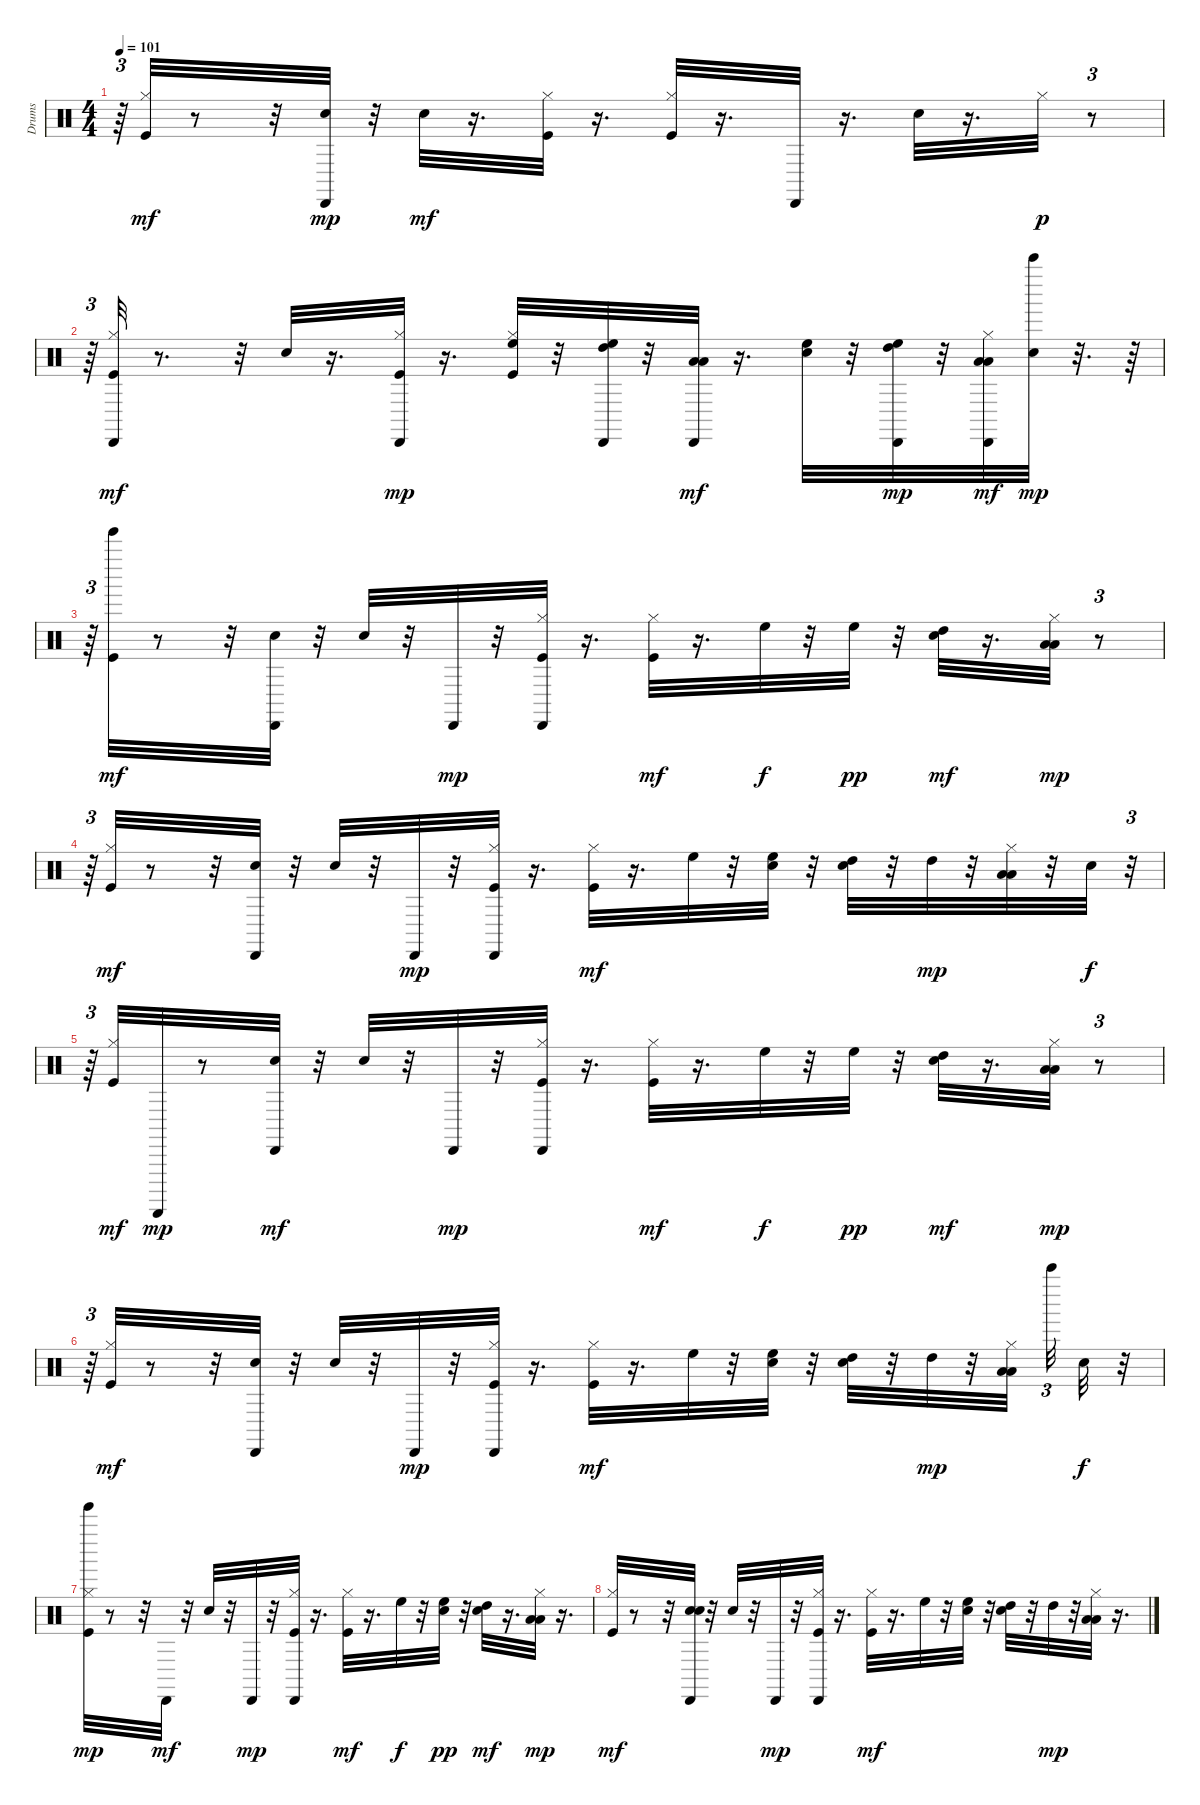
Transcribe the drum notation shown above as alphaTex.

\track ("Drums" "Drums") {instrument percussion}
\staff {score}
\articulation defaults
\ts (4 4)
\tempo 101
\clef neutral
\ks c
r.64{tu (3 2) dy mp} ("Kick (hit)" "Hi-Hat (closed)").32{dy mf} r.8 r.32 ("Hand Clap (hit)" "Cabasa (hit)").32{dy mp} r.32 "Snare (hit) 2".32{dy mf} r.16{d} ("Kick (hit)" "Hi-Hat (closed)").32 r.16{d} ("Kick (hit)" "Hi-Hat (closed)").32 r.16{d} "Cabasa (hit)".32 r.16{d} "Snare (hit) 2".32 r.16{d} "Hi-Hat (closed)".32{dy p} r.8{tu (3 2)} |
r.64{tu (3 2)} ("Kick (hit)" "Hi-Hat (closed)" "Cabasa (hit)").32{dy mf} r.8{d} r.32 "Snare (hit) 2".32 r.16{d} ("Kick (hit)" "Hi-Hat (closed)" "Cabasa (hit)").32{dy mp} r.16{d} ("Kick (hit)" "Hi-Hat (closed)" "High Floor Tom (hit)").32 r.32 ("High Tom (hit)" "High Floor Tom (hit)" "Cabasa (hit)").32 r.32 ("Low Floor Tom (hit)" "Low Tom (hit)" "Cabasa (hit)").32{dy mf} r.16{d} ("Snare (hit) 2" "High Floor Tom (hit)").32 r.32 ("High Tom (hit)" "High Floor Tom (hit)" "Cabasa (hit)").32{dy mp} r.32 ("Low Floor Tom (hit)" "Hi-Hat (closed)" "Low Tom (hit)" "Cabasa (hit)").32{dy mf} ("Bell Tree (hit)" "Hand Clap (hit)").32{dy mp} r.32{d} r.64 |
r.64{tu (3 2)} ("Kick (hit)" "Tinkle Bell (hit)").32{dy mf} r.8 r.32 ("Hand Clap (hit)" "Cabasa (hit)").32 r.32 "Snare (hit) 2".32 r.32 "Cabasa (hit)".32{dy mp} r.32 ("Kick (hit)" "Hi-Hat (closed)" "Cabasa (hit)").32 r.16{d} ("Kick (hit)" "Hi-Hat (closed)").32{dy mf} r.16{d} "High Floor Tom (hit)".32{dy f} r.32 "High Floor Tom (hit)".32{dy pp} r.32 ("Snare (hit) 2" "High Tom (hit)").32{dy mf} r.16{d} ("Low Floor Tom (hit)" "Hi-Hat (closed)" "Low Tom (hit)").32{dy mp} r.8{tu (3 2)} |
r.64{tu (3 2)} ("Kick (hit)" "Hi-Hat (closed)").32{dy mf} r.8 r.32 ("Hand Clap (hit)" "Cabasa (hit)").32 r.32 "Snare (hit) 2".32 r.32 "Cabasa (hit)".32{dy mp} r.32 ("Kick (hit)" "Hi-Hat (closed)" "Cabasa (hit)").32 r.16{d} ("Kick (hit)" "Hi-Hat (closed)").32{dy mf} r.16{d} "High Floor Tom (hit)".32 r.32 ("Hand Clap (hit)" "High Floor Tom (hit)").32 r.32 ("Snare (hit) 2" "High Tom (hit)").32 r.32 "High Tom (hit)".32{dy mp} r.32 ("Low Floor Tom (hit)" "Hi-Hat (closed)" "Low Tom (hit)").32 r.32 "Hand Clap (hit)".32{dy f} r.32{tu (3 2)} |
r.64{tu (3 2)} ("Kick (hit)" "Hi-Hat (closed)").32{dy mf} "Guiro (scrap-return)".32{dy mp} r.8 ("Hand Clap (hit)" "Cabasa (hit)").32{dy mf} r.32 "Snare (hit) 2".32 r.32 "Cabasa (hit)".32{dy mp} r.32 ("Kick (hit)" "Hi-Hat (closed)" "Cabasa (hit)").32 r.16{d} ("Kick (hit)" "Hi-Hat (closed)").32{dy mf} r.16{d} "High Floor Tom (hit)".32{dy f} r.32 "High Floor Tom (hit)".32{dy pp} r.32 ("Snare (hit) 2" "High Tom (hit)").32{dy mf} r.16{d} ("Low Floor Tom (hit)" "Hi-Hat (closed)" "Low Tom (hit)").32{dy mp} r.8{tu (3 2)} |
r.64{tu (3 2)} ("Kick (hit)" "Hi-Hat (closed)").32{dy mf} r.8 r.32 ("Hand Clap (hit)" "Cabasa (hit)").32 r.32 "Snare (hit) 2".32 r.32 "Cabasa (hit)".32{dy mp} r.32 ("Kick (hit)" "Hi-Hat (closed)" "Cabasa (hit)").32 r.16{d} ("Kick (hit)" "Hi-Hat (closed)").32{dy mf} r.16{d} "High Floor Tom (hit)".32 r.32 ("Hand Clap (hit)" "High Floor Tom (hit)").32 r.32 ("Snare (hit) 2" "High Tom (hit)").32 r.32 "High Tom (hit)".32{dy mp} r.32 ("Low Floor Tom (hit)" "Hi-Hat (closed)" "Low Tom (hit)").32{beam splitsecondary} "Bell Tree (hit)".32{tu (3 2)} "Hand Clap (hit)".32{dy f} r.32 |
("Kick (hit)" "Hi-Hat (closed)" "Tinkle Bell (hit)").32{dy mp} r.8 r.32 "Cabasa (hit)".32{dy mf} r.32 "Snare (hit) 2".32 r.32 "Cabasa (hit)".32{dy mp} r.32 ("Kick (hit)" "Hi-Hat (closed)" "Cabasa (hit)").32 r.16{d} ("Kick (hit)" "Hi-Hat (closed)").32{dy mf} r.16{d} "High Floor Tom (hit)".32{dy f} r.32 ("Hand Clap (hit)" "High Floor Tom (hit)").32{dy pp} r.32 ("Snare (hit) 2" "High Tom (hit)").32{dy mf} r.16{d} ("Low Floor Tom (hit)" "Hi-Hat (closed)" "Low Tom (hit)").32{dy mp} r.16{d} |
("Kick (hit)" "Hi-Hat (closed)").32{dy mf} r.8 r.32 ("Hand Clap (hit)" "Hand Clap (hit)" "Cabasa (hit)").32 r.32 "Snare (hit) 2".32 r.32 "Cabasa (hit)".32{dy mp} r.32 ("Kick (hit)" "Hi-Hat (closed)" "Cabasa (hit)").32 r.16{d} ("Kick (hit)" "Hi-Hat (closed)").32{dy mf} r.16{d} "High Floor Tom (hit)".32 r.32 ("Hand Clap (hit)" "High Floor Tom (hit)").32 r.32 ("Snare (hit) 2" "High Tom (hit)").32 r.32 "High Tom (hit)".32{dy mp} r.32 ("Low Floor Tom (hit)" "Hi-Hat (closed)" "Low Tom (hit)").32 r.16{d}
